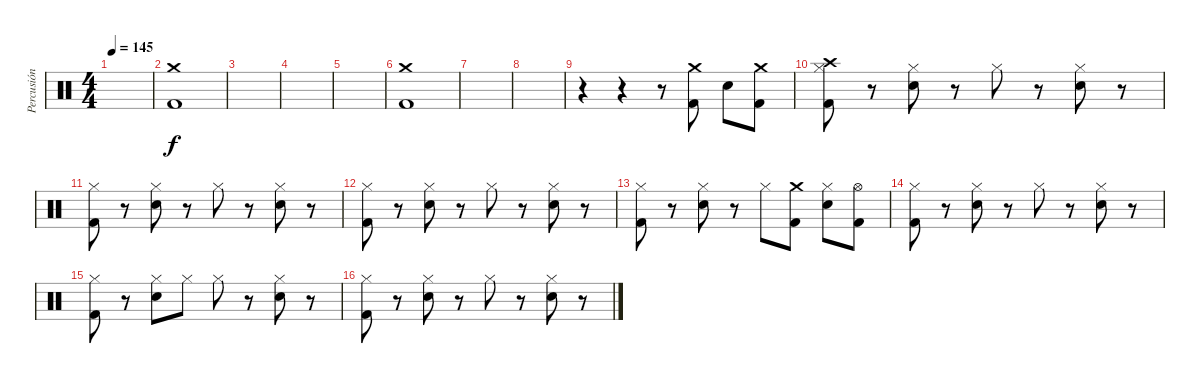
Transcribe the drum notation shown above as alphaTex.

\track ("Percusión" "Percusión") {instrument percussion}
\staff {score}
\articulation defaults
\ts (4 4)
\tempo 145
\clef neutral
\ks c
|
("Kick (hit) 2" "Crash medium (hit)").1 |
|
|
|
("Kick (hit) 2" "Crash medium (hit)").1 |
|
|
r.4 r.4 r.8 ("Kick (hit) 2" "Crash medium (hit)").8 "Electric Snare (hit)".8 ("Kick (hit) 2" "Crash medium (hit)").8 |
("Hi-Hat (closed)" "Kick (hit) 2" "Crash high (hit)").8 r.8 ("Hi-Hat (closed)" "Electric Snare (hit)").8 r.8 "Hi-Hat (closed)".8 r.8 ("Hi-Hat (closed)" "Electric Snare (hit)").8 r.8 |
("Hi-Hat (closed)" "Kick (hit) 2").8 r.8 ("Hi-Hat (closed)" "Electric Snare (hit)").8 r.8 "Hi-Hat (closed)".8 r.8 ("Hi-Hat (closed)" "Electric Snare (hit)").8 r.8 |
("Hi-Hat (closed)" "Kick (hit) 2").8 r.8 ("Hi-Hat (closed)" "Electric Snare (hit)").8 r.8 "Hi-Hat (closed)".8 r.8 ("Hi-Hat (closed)" "Electric Snare (hit)").8 r.8 |
("Hi-Hat (closed)" "Kick (hit) 2").8 r.8 ("Hi-Hat (closed)" "Electric Snare (hit)").8 r.8 "Hi-Hat (closed)".8 ("Kick (hit) 2" "Crash medium (hit)").8 ("Hi-Hat (closed)" "Electric Snare (hit)").8 ("Kick (hit) 2" "Hi-Hat (open)").8 |
("Hi-Hat (closed)" "Kick (hit) 2").8 r.8 ("Hi-Hat (closed)" "Electric Snare (hit)").8 r.8 "Hi-Hat (closed)".8 r.8 ("Hi-Hat (closed)" "Electric Snare (hit)").8 r.8 |
("Hi-Hat (closed)" "Kick (hit) 2").8 r.8 ("Hi-Hat (closed)" "Electric Snare (hit)").8 "Hi-Hat (closed)".8 "Hi-Hat (closed)".8 r.8 ("Hi-Hat (closed)" "Electric Snare (hit)").8 r.8 |
("Hi-Hat (closed)" "Kick (hit) 2").8 r.8 ("Hi-Hat (closed)" "Electric Snare (hit)").8 r.8 "Hi-Hat (closed)".8 r.8 ("Hi-Hat (closed)" "Electric Snare (hit)").8 r.8
